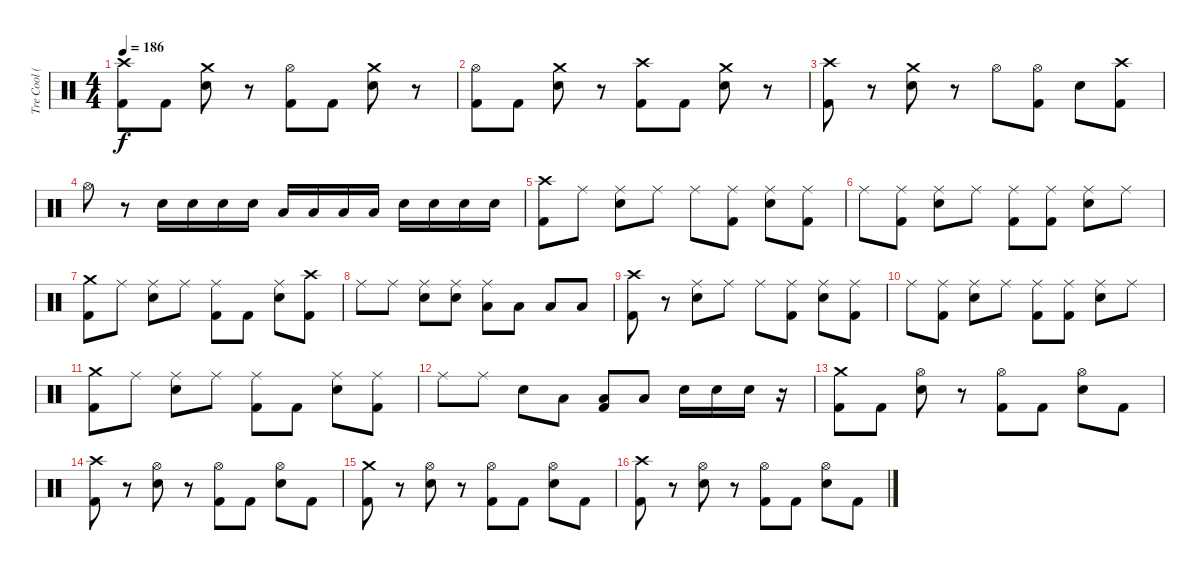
\track ("Tre Cool (Drums)" "Tre Cool (") {instrument percussion}
\staff {score}
\articulation defaults
\ts (4 4)
\tempo 186
\clef neutral
\ks c
("Crash high (hit)" "Kick (hit) 2").8{dy f} "Kick (hit) 2".8 ("Crash medium (hit)" "Snare (hit) 2").8 r.8 ("Hi-Hat (open)" "Kick (hit) 2").8 "Kick (hit) 2".8 ("Crash medium (hit)" "Snare (hit) 2").8 r.8 |
("Hi-Hat (open)" "Kick (hit) 2").8 "Kick (hit) 2".8 ("Crash medium (hit)" "Snare (hit) 2").8 r.8 ("Crash high (hit)" "Kick (hit) 2").8 "Kick (hit) 2".8 ("Crash medium (hit)" "Snare (hit) 2").8 r.8 |
("Kick (hit) 2" "Crash high (hit)").8 r.8 ("Snare (hit) 2" "Crash medium (hit)").8 r.8 "Hi-Hat (open)".8 ("Kick (hit) 2" "Hi-Hat (open)").8 "Snare (hit) 2".8 ("Kick (hit) 2" "Crash high (hit)").8 |
"Hi-Hat (open)".8 r.8 "Snare (hit) 2".16 "Snare (hit) 2".16 "Snare (hit) 2".16 "Snare (hit) 2".16 "Low Tom (hit)".16 "Low Tom (hit)".16 "Low Tom (hit)".16 "Low Tom (hit)".16 "Snare (hit) 2".16 "Snare (hit) 2".16 "Snare (hit) 2".16 "Snare (hit) 2".16 |
("Crash high (hit)" "Kick (hit) 2").8 "Ride (middle)".8 ("Ride (middle)" "Snare (hit) 2").8 "Ride (middle)".8 "Ride (middle)".8 ("Ride (middle)" "Kick (hit) 2").8 ("Ride (middle)" "Snare (hit) 2").8 ("Ride (middle)" "Kick (hit) 2").8 |
"Ride (middle)".8 ("Ride (middle)" "Kick (hit) 2").8 ("Ride (middle)" "Snare (hit) 2").8 "Ride (middle)".8 ("Ride (middle)" "Kick (hit) 2").8 ("Ride (middle)" "Kick (hit) 2").8 ("Ride (middle)" "Snare (hit) 2").8 "Ride (middle)".8 |
("Crash medium (hit)" "Kick (hit) 2").8 "Ride (middle)".8 ("Ride (middle)" "Snare (hit) 2").8 "Ride (middle)".8 ("Ride (middle)" "Kick (hit) 2").8 "Kick (hit) 2".8 ("Ride (middle)" "Snare (hit) 2").8 ("Crash high (hit)" "Kick (hit) 2").8 |
"Ride (middle)".8 "Ride (middle)".8 ("Ride (middle)" "Snare (hit) 2").8 ("Ride (middle)" "Snare (hit) 2").8 ("Ride (middle)" "Low Floor Tom (hit)").8 "Low Floor Tom (hit)".8 "Low Tom (hit)".8 "Low Tom (hit)".8 |
("Crash high (hit)" "Kick (hit) 2").8 r.8 ("Ride (middle)" "Snare (hit) 2").8 "Ride (middle)".8 "Ride (middle)".8 ("Ride (middle)" "Kick (hit) 2").8 ("Ride (middle)" "Snare (hit) 2").8 ("Ride (middle)" "Kick (hit) 2").8 |
"Ride (middle)".8 ("Kick (hit) 2" "Ride (middle)").8 ("Snare (hit) 2" "Ride (middle)").8 "Ride (middle)".8 ("Kick (hit) 2" "Ride (middle)").8 ("Kick (hit) 2" "Ride (middle)").8 ("Snare (hit) 2" "Ride (middle)").8 "Ride (middle)".8 |
("Kick (hit) 2" "Crash medium (hit)").8 "Ride (middle)".8 ("Snare (hit) 2" "Ride (middle)").8 "Ride (middle)".8 ("Kick (hit) 2" "Ride (middle)").8 "Kick (hit) 2".8 ("Snare (hit) 2" "Ride (middle)").8 ("Kick (hit) 2" "Ride (middle)").8 |
"Ride (middle)".8 "Ride (middle)".8 "Snare (hit) 2".8 "Low Tom (hit)".8 ("Low Floor Tom (hit)" "Kick (hit) 2").8 "Low Tom (hit)".8 "Snare (hit) 2".16 "Snare (hit) 2".16 "Snare (hit) 2".16 r.16 |
("Kick (hit) 2" "Crash medium (hit)").8 "Kick (hit) 2".8 ("Snare (hit) 2" "Hi-Hat (open)").8 r.8 ("Kick (hit) 2" "Hi-Hat (open)").8 "Kick (hit) 2".8 ("Snare (hit) 2" "Hi-Hat (open)").8 "Kick (hit) 2".8 |
("Kick (hit) 2" "Crash high (hit)").8 r.8 ("Snare (hit) 2" "Hi-Hat (open)").8 r.8 ("Kick (hit) 2" "Hi-Hat (open)").8 "Kick (hit) 2".8 ("Snare (hit) 2" "Hi-Hat (open)").8 "Kick (hit) 2".8 |
("Crash medium (hit)" "Kick (hit) 2").8 r.8 ("Hi-Hat (open)" "Snare (hit) 2").8 r.8 ("Hi-Hat (open)" "Kick (hit) 2").8 "Kick (hit) 2".8 ("Hi-Hat (open)" "Snare (hit) 2").8 "Kick (hit) 2".8 |
("Crash high (hit)" "Kick (hit) 2").8 r.8 ("Hi-Hat (open)" "Snare (hit) 2").8 r.8 ("Hi-Hat (open)" "Kick (hit) 2").8 "Kick (hit) 2".8 ("Hi-Hat (open)" "Snare (hit) 2").8 "Kick (hit) 2".8
